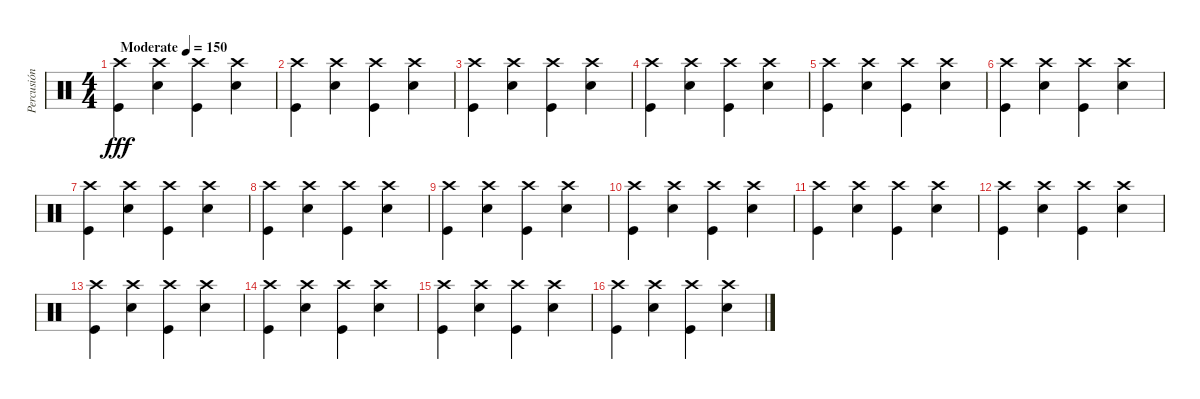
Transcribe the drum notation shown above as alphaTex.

\track ("Percusión" "Percusión") {instrument percussion bank 106}
\staff {score}
\articulation defaults
\ts (4 4)
\tempo (150 "Moderate")
\clef neutral
\ks c
("Crash high (hit)" "Kick (hit)").4{dy fff} ("Crash high (hit)" "Electric Snare (hit)").4 ("Crash high (hit)" "Kick (hit)").4 ("Crash high (hit)" "Electric Snare (hit)").4 |
("Crash high (hit)" "Kick (hit)").4 ("Crash high (hit)" "Electric Snare (hit)").4 ("Crash high (hit)" "Kick (hit)").4 ("Crash high (hit)" "Electric Snare (hit)").4 |
("Crash high (hit)" "Kick (hit)").4 ("Crash high (hit)" "Electric Snare (hit)").4 ("Crash high (hit)" "Kick (hit)").4 ("Crash high (hit)" "Electric Snare (hit)").4 |
("Crash high (hit)" "Kick (hit)").4 ("Crash high (hit)" "Electric Snare (hit)").4 ("Crash high (hit)" "Kick (hit)").4 ("Crash high (hit)" "Electric Snare (hit)").4 |
("Crash high (hit)" "Kick (hit)").4 ("Crash high (hit)" "Electric Snare (hit)").4 ("Crash high (hit)" "Kick (hit)").4 ("Crash high (hit)" "Electric Snare (hit)").4 |
("Crash high (hit)" "Kick (hit)").4 ("Crash high (hit)" "Electric Snare (hit)").4 ("Crash high (hit)" "Kick (hit)").4 ("Crash high (hit)" "Electric Snare (hit)").4 |
("Crash high (hit)" "Kick (hit)").4 ("Crash high (hit)" "Electric Snare (hit)").4 ("Crash high (hit)" "Kick (hit)").4 ("Crash high (hit)" "Electric Snare (hit)").4 |
("Crash high (hit)" "Kick (hit)").4 ("Crash high (hit)" "Electric Snare (hit)").4 ("Crash high (hit)" "Kick (hit)").4 ("Crash high (hit)" "Electric Snare (hit)").4 |
("Crash high (hit)" "Kick (hit)").4 ("Crash high (hit)" "Electric Snare (hit)").4 ("Crash high (hit)" "Kick (hit)").4 ("Crash high (hit)" "Electric Snare (hit)").4 |
("Crash high (hit)" "Kick (hit)").4 ("Crash high (hit)" "Electric Snare (hit)").4 ("Crash high (hit)" "Kick (hit)").4 ("Crash high (hit)" "Electric Snare (hit)").4 |
("Crash high (hit)" "Kick (hit)").4 ("Crash high (hit)" "Electric Snare (hit)").4 ("Crash high (hit)" "Kick (hit)").4 ("Crash high (hit)" "Electric Snare (hit)").4 |
("Crash high (hit)" "Kick (hit)").4 ("Crash high (hit)" "Electric Snare (hit)").4 ("Crash high (hit)" "Kick (hit)").4 ("Crash high (hit)" "Electric Snare (hit)").4 |
("Crash high (hit)" "Kick (hit)").4 ("Crash high (hit)" "Electric Snare (hit)").4 ("Crash high (hit)" "Kick (hit)").4 ("Crash high (hit)" "Electric Snare (hit)").4 |
("Crash high (hit)" "Kick (hit)").4 ("Crash high (hit)" "Electric Snare (hit)").4 ("Crash high (hit)" "Kick (hit)").4 ("Crash high (hit)" "Electric Snare (hit)").4 |
("Crash high (hit)" "Kick (hit)").4 ("Crash high (hit)" "Electric Snare (hit)").4 ("Crash high (hit)" "Kick (hit)").4 ("Crash high (hit)" "Electric Snare (hit)").4 |
("Crash high (hit)" "Kick (hit)").4 ("Crash high (hit)" "Electric Snare (hit)").4 ("Crash high (hit)" "Kick (hit)").4 ("Crash high (hit)" "Electric Snare (hit)").4
